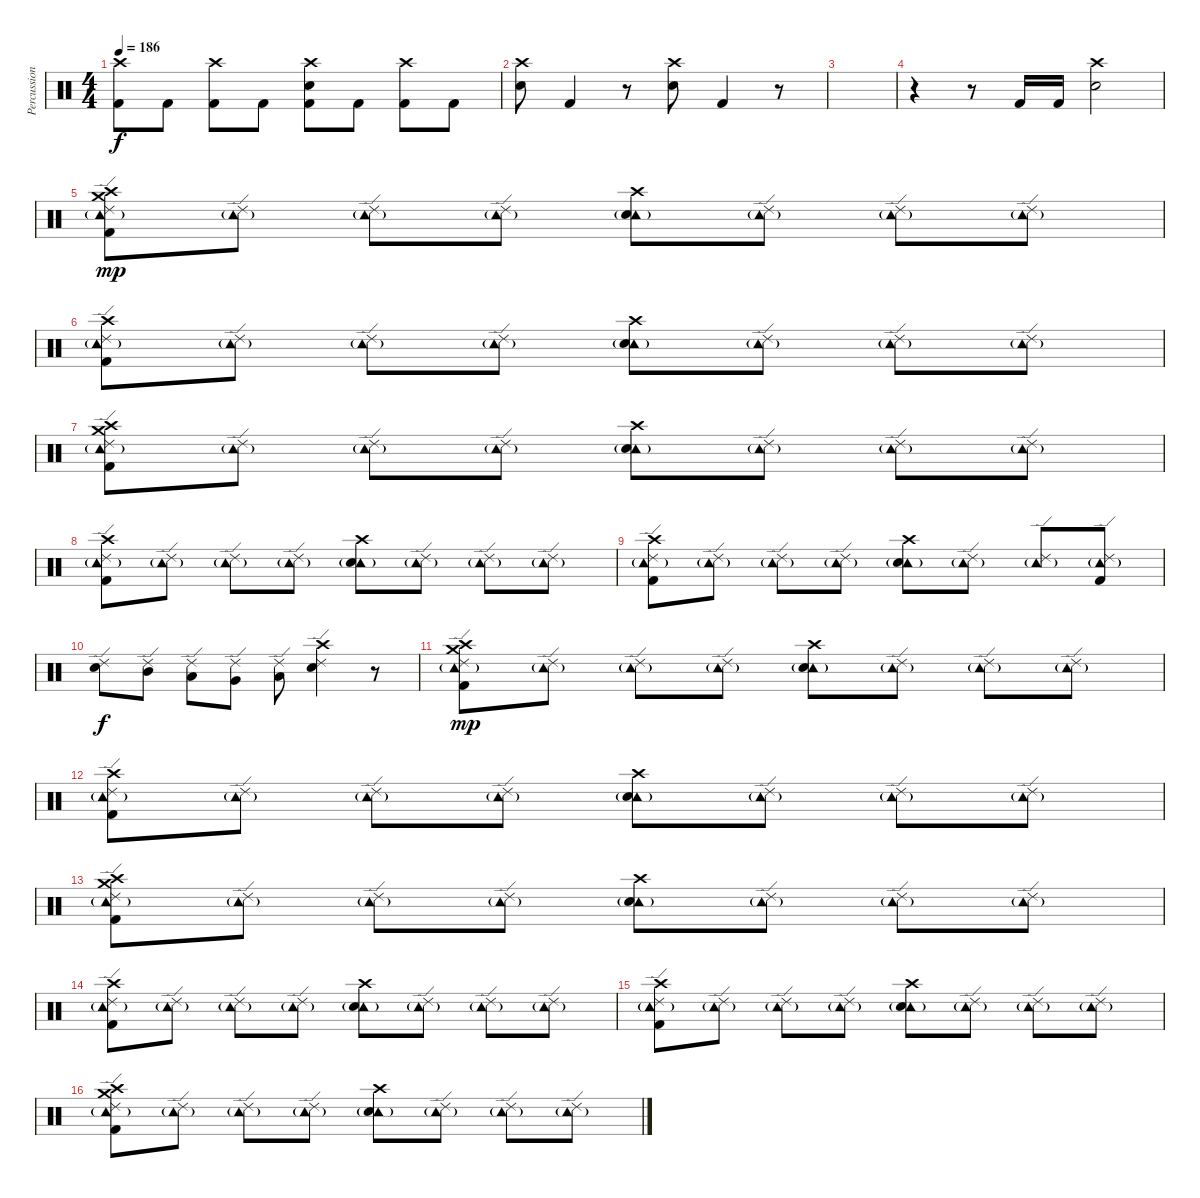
\track ("Percussion" "Percussion") {instrument percussion}
\staff {score}
\articulation defaults
\ts (4 4)
\tempo 186
\clef neutral
\ks c
("Crash high (hit)" "Kick (hit) 2").8{dy f} "Kick (hit) 2".8 ("Crash high (hit)" "Kick (hit) 2").8 "Kick (hit) 2".8 ("Crash high (hit)" "Electric Snare (hit)" "Kick (hit) 2").8 "Kick (hit) 2".8 ("Crash high (hit)" "Kick (hit) 2").8 "Kick (hit) 2".8 |
("Electric Snare (hit)" "Crash high (hit)").8 "Kick (hit) 2".4 r.8 ("Crash high (hit)" "Electric Snare (hit)").8 "Kick (hit) 2".4 r.8 |
|
r.4 r.8 "Kick (hit) 2".16 "Kick (hit) 2".16 ("Crash high (hit)" "Electric Snare (hit)").2 |
("Ride (edge) 2" "Tambourine (hit)"{g} "Crash high (hit)" "Crash medium (hit)" "Kick (hit) 2").8{dy mp} ("Ride (edge) 2" "Tambourine (hit)"{g}).8 ("Ride (edge) 2" "Tambourine (hit)"{g}).8 ("Ride (edge) 2" "Tambourine (hit)"{g}).8 ("Crash high (hit)" "Tambourine (hit)"{g} "Electric Snare (hit)").8 ("Ride (edge) 2" "Tambourine (hit)"{g}).8 ("Ride (edge) 2" "Tambourine (hit)"{g}).8 ("Ride (edge) 2" "Tambourine (hit)"{g}).8 |
("Ride (edge) 2" "Tambourine (hit)"{g} "Crash high (hit)" "Kick (hit) 2").8 ("Ride (edge) 2" "Tambourine (hit)"{g}).8 ("Ride (edge) 2" "Tambourine (hit)"{g}).8 ("Ride (edge) 2" "Tambourine (hit)"{g}).8 ("Crash high (hit)" "Tambourine (hit)"{g} "Electric Snare (hit)").8 ("Ride (edge) 2" "Tambourine (hit)"{g}).8 ("Ride (edge) 2" "Tambourine (hit)"{g}).8 ("Ride (edge) 2" "Tambourine (hit)"{g}).8 |
("Ride (edge) 2" "Tambourine (hit)"{g} "Crash high (hit)" "Crash medium (hit)" "Kick (hit) 2").8 ("Ride (edge) 2" "Tambourine (hit)"{g}).8 ("Ride (edge) 2" "Tambourine (hit)"{g}).8 ("Ride (edge) 2" "Tambourine (hit)"{g}).8 ("Crash high (hit)" "Tambourine (hit)"{g} "Electric Snare (hit)").8 ("Ride (edge) 2" "Tambourine (hit)"{g}).8 ("Ride (edge) 2" "Tambourine (hit)"{g}).8 ("Ride (edge) 2" "Tambourine (hit)"{g}).8 |
("Ride (edge) 2" "Tambourine (hit)"{g} "Crash high (hit)" "Kick (hit) 2").8 ("Ride (edge) 2" "Tambourine (hit)"{g}).8 ("Ride (edge) 2" "Tambourine (hit)"{g}).8 ("Ride (edge) 2" "Tambourine (hit)"{g}).8 ("Crash high (hit)" "Tambourine (hit)"{g} "Electric Snare (hit)").8 ("Ride (edge) 2" "Tambourine (hit)"{g}).8 ("Ride (edge) 2" "Tambourine (hit)"{g}).8 ("Ride (edge) 2" "Tambourine (hit)"{g}).8 |
("Ride (edge) 2" "Tambourine (hit)"{g} "Crash high (hit)" "Kick (hit) 2").8 ("Ride (edge) 2" "Tambourine (hit)"{g}).8 ("Ride (edge) 2" "Tambourine (hit)"{g}).8 ("Ride (edge) 2" "Tambourine (hit)"{g}).8 ("Crash high (hit)" "Tambourine (hit)"{g} "Electric Snare (hit)").8 ("Ride (edge) 2" "Tambourine (hit)"{g}).8 ("Ride (edge) 2" "Tambourine (hit)"{g}).8 ("Ride (edge) 2" "Tambourine (hit)"{g} "Kick (hit) 2").8 |
("Ride (edge) 2" "Electric Snare (hit)").8{dy f} ("Ride (edge) 2" "Mid Tom (hit)").8 ("Ride (edge) 2" "Low Tom (hit)").8 ("Ride (edge) 2" "Very Low Tom (hit)").8 ("Ride (edge) 2" "Low Floor Tom (hit)").8 ("Ride (edge) 2" "Crash high (hit)" "Electric Snare (hit)").4 r.8 |
("Ride (edge) 2" "Tambourine (hit)"{g} "Crash high (hit)" "Crash medium (hit)" "Kick (hit) 2").8{dy mp} ("Ride (edge) 2" "Tambourine (hit)"{g}).8 ("Ride (edge) 2" "Tambourine (hit)"{g}).8 ("Ride (edge) 2" "Tambourine (hit)"{g}).8 ("Crash high (hit)" "Tambourine (hit)"{g} "Electric Snare (hit)").8 ("Ride (edge) 2" "Tambourine (hit)"{g}).8 ("Ride (edge) 2" "Tambourine (hit)"{g}).8 ("Ride (edge) 2" "Tambourine (hit)"{g}).8 |
("Ride (edge) 2" "Tambourine (hit)"{g} "Crash high (hit)" "Kick (hit) 2").8 ("Ride (edge) 2" "Tambourine (hit)"{g}).8 ("Ride (edge) 2" "Tambourine (hit)"{g}).8 ("Ride (edge) 2" "Tambourine (hit)"{g}).8 ("Crash high (hit)" "Tambourine (hit)"{g} "Electric Snare (hit)").8 ("Ride (edge) 2" "Tambourine (hit)"{g}).8 ("Ride (edge) 2" "Tambourine (hit)"{g}).8 ("Ride (edge) 2" "Tambourine (hit)"{g}).8 |
("Ride (edge) 2" "Tambourine (hit)"{g} "Crash high (hit)" "Crash medium (hit)" "Kick (hit) 2").8 ("Ride (edge) 2" "Tambourine (hit)"{g}).8 ("Ride (edge) 2" "Tambourine (hit)"{g}).8 ("Ride (edge) 2" "Tambourine (hit)"{g}).8 ("Crash high (hit)" "Tambourine (hit)"{g} "Electric Snare (hit)").8 ("Ride (edge) 2" "Tambourine (hit)"{g}).8 ("Ride (edge) 2" "Tambourine (hit)"{g}).8 ("Ride (edge) 2" "Tambourine (hit)"{g}).8 |
("Ride (edge) 2" "Tambourine (hit)"{g} "Crash high (hit)" "Kick (hit) 2").8 ("Ride (edge) 2" "Tambourine (hit)"{g}).8 ("Ride (edge) 2" "Tambourine (hit)"{g}).8 ("Ride (edge) 2" "Tambourine (hit)"{g}).8 ("Crash high (hit)" "Tambourine (hit)"{g} "Electric Snare (hit)").8 ("Ride (edge) 2" "Tambourine (hit)"{g}).8 ("Ride (edge) 2" "Tambourine (hit)"{g}).8 ("Ride (edge) 2" "Tambourine (hit)"{g}).8 |
("Ride (edge) 2" "Tambourine (hit)"{g} "Crash high (hit)" "Kick (hit) 2").8 ("Ride (edge) 2" "Tambourine (hit)"{g}).8 ("Ride (edge) 2" "Tambourine (hit)"{g}).8 ("Ride (edge) 2" "Tambourine (hit)"{g}).8 ("Crash high (hit)" "Tambourine (hit)"{g} "Electric Snare (hit)").8 ("Ride (edge) 2" "Tambourine (hit)"{g}).8 ("Ride (edge) 2" "Tambourine (hit)"{g}).8 ("Ride (edge) 2" "Tambourine (hit)"{g}).8 |
("Ride (edge) 2" "Tambourine (hit)"{g} "Crash high (hit)" "Crash medium (hit)" "Kick (hit) 2").8 ("Ride (edge) 2" "Tambourine (hit)"{g}).8 ("Ride (edge) 2" "Tambourine (hit)"{g}).8 ("Ride (edge) 2" "Tambourine (hit)"{g}).8 ("Crash high (hit)" "Tambourine (hit)"{g} "Electric Snare (hit)").8 ("Ride (edge) 2" "Tambourine (hit)"{g}).8 ("Ride (edge) 2" "Tambourine (hit)"{g}).8 ("Ride (edge) 2" "Tambourine (hit)"{g}).8
